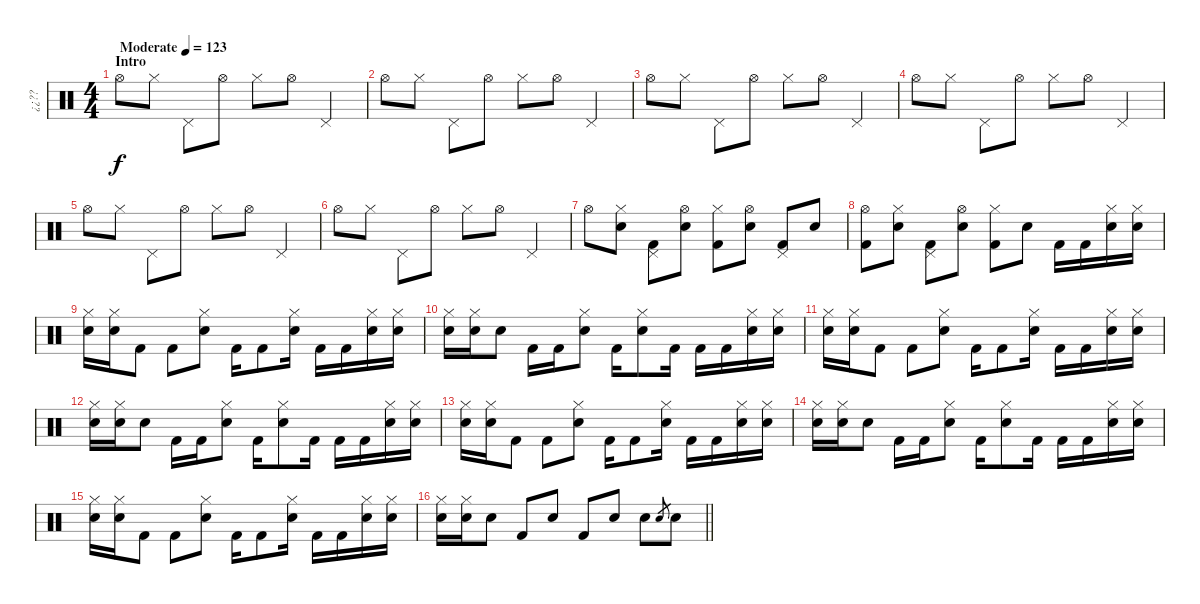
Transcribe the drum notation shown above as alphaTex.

\track ("¿¿??" "¿¿??") {instrument percussion}
\staff {score}
\articulation defaults
\ts (4 4)
\section ("" "Intro")
\tempo (123 "Moderate")
\clef neutral
\ks c "Hi-Hat (open)".8{dy f} "Hi-Hat (closed)".8 "Pedal Hi-Hat (hit)".8 "Hi-Hat (open)".8 "Hi-Hat (closed)".8 "Hi-Hat (open)".8 "Pedal Hi-Hat (hit)".4
|
"Hi-Hat (open)".8 "Hi-Hat (closed)".8 "Pedal Hi-Hat (hit)".8 "Hi-Hat (open)".8 "Hi-Hat (closed)".8 "Hi-Hat (open)".8 "Pedal Hi-Hat (hit)".4 |
"Hi-Hat (open)".8 "Hi-Hat (closed)".8 "Pedal Hi-Hat (hit)".8 "Hi-Hat (open)".8 "Hi-Hat (closed)".8 "Hi-Hat (open)".8 "Pedal Hi-Hat (hit)".4 |
"Hi-Hat (open)".8 "Hi-Hat (closed)".8 "Pedal Hi-Hat (hit)".8 "Hi-Hat (open)".8 "Hi-Hat (closed)".8 "Hi-Hat (open)".8 "Pedal Hi-Hat (hit)".4 |
"Hi-Hat (open)".8 "Hi-Hat (closed)".8 "Pedal Hi-Hat (hit)".8 "Hi-Hat (open)".8 "Hi-Hat (closed)".8 "Hi-Hat (open)".8 "Pedal Hi-Hat (hit)".4 |
"Hi-Hat (open)".8 "Hi-Hat (closed)".8 "Pedal Hi-Hat (hit)".8 "Hi-Hat (open)".8 "Hi-Hat (closed)".8 "Hi-Hat (open)".8 "Pedal Hi-Hat (hit)".4 |
"Hi-Hat (open)".8 ("Hi-Hat (closed)" "Snare (hit) 2").8 ("Pedal Hi-Hat (hit)" "Kick (hit) 2").8 ("Hi-Hat (open)" "Snare (hit) 2").8 ("Hi-Hat (closed)" "Kick (hit) 2").8 ("Hi-Hat (open)" "Snare (hit) 2").8 ("Pedal Hi-Hat (hit)" "Kick (hit) 2").8 "Snare (hit) 2".8 |
("Hi-Hat (open)" "Kick (hit) 2").8 ("Hi-Hat (closed)" "Snare (hit) 2").8 ("Pedal Hi-Hat (hit)" "Kick (hit) 2").8 ("Hi-Hat (open)" "Snare (hit) 2").8 ("Hi-Hat (closed)" "Kick (hit) 2").8 "Snare (hit) 2".8 "Kick (hit) 2".16 "Kick (hit) 2".16 ("Hi-Hat (closed)" "Snare (hit) 2").16 ("Hi-Hat (closed)" "Snare (hit) 2").16 |
("Hi-Hat (closed)" "Snare (hit) 2").16 ("Hi-Hat (closed)" "Snare (hit) 2").16 "Kick (hit) 2".8 "Kick (hit) 2".8 ("Hi-Hat (closed)" "Snare (hit) 2").8 "Kick (hit) 2".16 "Kick (hit) 2".8 ("Hi-Hat (closed)" "Snare (hit) 2").16 "Kick (hit) 2".16 "Kick (hit) 2".16 ("Hi-Hat (closed)" "Snare (hit) 2").16 ("Hi-Hat (closed)" "Snare (hit) 2").16 |
("Hi-Hat (closed)" "Snare (hit) 2").16 ("Hi-Hat (closed)" "Snare (hit) 2").16 "Snare (hit) 2".8 "Kick (hit) 2".16 "Kick (hit) 2".16 ("Hi-Hat (closed)" "Snare (hit) 2").8 "Kick (hit) 2".16 ("Hi-Hat (closed)" "Snare (hit) 2").8 "Kick (hit) 2".16 "Kick (hit) 2".16 "Kick (hit) 2".16 ("Hi-Hat (closed)" "Snare (hit) 2").16 ("Hi-Hat (closed)" "Snare (hit) 2").16 |
("Hi-Hat (closed)" "Snare (hit) 2").16 ("Hi-Hat (closed)" "Snare (hit) 2").16 "Kick (hit) 2".8 "Kick (hit) 2".8 ("Hi-Hat (closed)" "Snare (hit) 2").8 "Kick (hit) 2".16 "Kick (hit) 2".8 ("Hi-Hat (closed)" "Snare (hit) 2").16 "Kick (hit) 2".16 "Kick (hit) 2".16 ("Hi-Hat (closed)" "Snare (hit) 2").16 ("Hi-Hat (closed)" "Snare (hit) 2").16 |
("Hi-Hat (closed)" "Snare (hit) 2").16 ("Hi-Hat (closed)" "Snare (hit) 2").16 "Snare (hit) 2".8 "Kick (hit) 2".16 "Kick (hit) 2".16 ("Hi-Hat (closed)" "Snare (hit) 2").8 "Kick (hit) 2".16 ("Hi-Hat (closed)" "Snare (hit) 2").8 "Kick (hit) 2".16 "Kick (hit) 2".16 "Kick (hit) 2".16 ("Hi-Hat (closed)" "Snare (hit) 2").16 ("Hi-Hat (closed)" "Snare (hit) 2").16 |
("Hi-Hat (closed)" "Snare (hit) 2").16 ("Hi-Hat (closed)" "Snare (hit) 2").16 "Kick (hit) 2".8 "Kick (hit) 2".8 ("Hi-Hat (closed)" "Snare (hit) 2").8 "Kick (hit) 2".16 "Kick (hit) 2".8 ("Hi-Hat (closed)" "Snare (hit) 2").16 "Kick (hit) 2".16 "Kick (hit) 2".16 ("Hi-Hat (closed)" "Snare (hit) 2").16 ("Hi-Hat (closed)" "Snare (hit) 2").16 |
("Hi-Hat (closed)" "Snare (hit) 2").16 ("Hi-Hat (closed)" "Snare (hit) 2").16 "Snare (hit) 2".8 "Kick (hit) 2".16 "Kick (hit) 2".16 ("Hi-Hat (closed)" "Snare (hit) 2").8 "Kick (hit) 2".16 ("Hi-Hat (closed)" "Snare (hit) 2").8 "Kick (hit) 2".16 "Kick (hit) 2".16 "Kick (hit) 2".16 ("Hi-Hat (closed)" "Snare (hit) 2").16 ("Hi-Hat (closed)" "Snare (hit) 2").16 |
("Hi-Hat (closed)" "Snare (hit) 2").16 ("Hi-Hat (closed)" "Snare (hit) 2").16 "Kick (hit) 2".8 "Kick (hit) 2".8 ("Hi-Hat (closed)" "Snare (hit) 2").8 "Kick (hit) 2".16 "Kick (hit) 2".8 ("Hi-Hat (closed)" "Snare (hit) 2").16 "Kick (hit) 2".16 "Kick (hit) 2".16 ("Hi-Hat (closed)" "Snare (hit) 2").16 ("Hi-Hat (closed)" "Snare (hit) 2").16 |
\barLineRight lightlight
("Hi-Hat (closed)" "Snare (hit) 2").16 ("Hi-Hat (closed)" "Snare (hit) 2").16 "Snare (hit) 2".8 "Kick (hit) 2".8 "Snare (hit) 2".8 "Kick (hit) 2".8 "Snare (hit) 2".8 "Snare (hit) 2".8 "Snare (hit) 2".8{gr} "Snare (hit) 2".8{volume 13}
